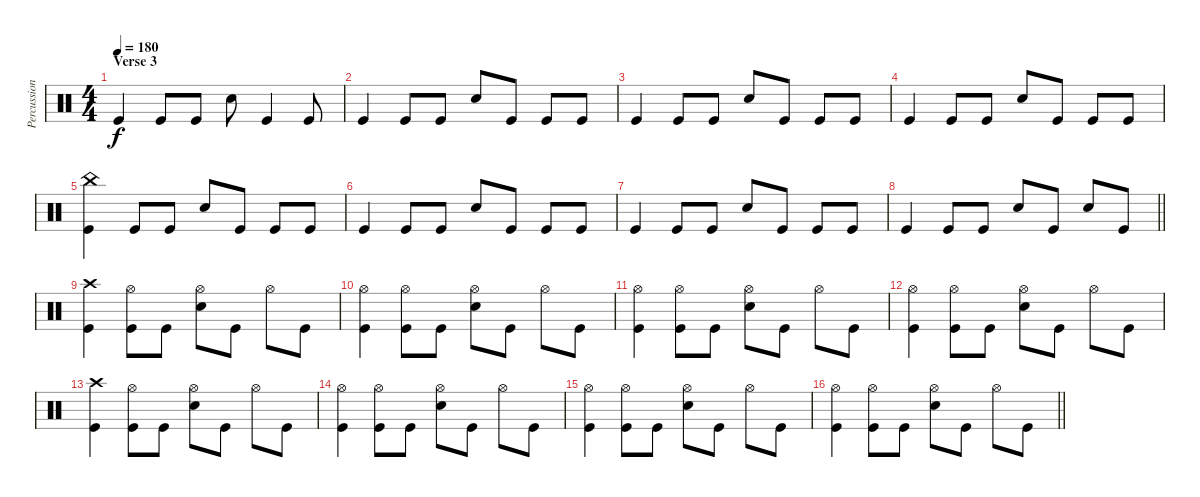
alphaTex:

\track ("Percussion" "Percussion") {instrument percussion}
\staff {score}
\articulation defaults
\ts (4 4)
\section ("" "Verse 3")
\tempo 180
\clef neutral
\ks c "Kick (hit)".4{dy f} "Kick (hit)".8 "Kick (hit)".8 "Snare (hit) 2".8 "Kick (hit)".4 "Kick (hit)".8
|
"Kick (hit)".4 "Kick (hit)".8 "Kick (hit)".8 "Snare (hit) 2".8 "Kick (hit)".8 "Kick (hit)".8 "Kick (hit)".8 |
"Kick (hit)".4 "Kick (hit)".8 "Kick (hit)".8 "Snare (hit) 2".8 "Kick (hit)".8 "Kick (hit)".8 "Kick (hit)".8 |
"Kick (hit)".4 "Kick (hit)".8 "Kick (hit)".8 "Snare (hit) 2".8 "Kick (hit)".8 "Kick (hit)".8 "Kick (hit)".8 |
("China (hit)" "Kick (hit)").4 "Kick (hit)".8 "Kick (hit)".8 "Snare (hit) 2".8 "Kick (hit)".8 "Kick (hit)".8 "Kick (hit)".8 |
"Kick (hit)".4 "Kick (hit)".8 "Kick (hit)".8 "Snare (hit) 2".8 "Kick (hit)".8 "Kick (hit)".8 "Kick (hit)".8 |
"Kick (hit)".4 "Kick (hit)".8 "Kick (hit)".8 "Snare (hit) 2".8 "Kick (hit)".8 "Kick (hit)".8 "Kick (hit)".8 |
\barLineRight lightlight "Kick (hit)".4 "Kick (hit)".8 "Kick (hit)".8 "Snare (hit) 2".8 "Kick (hit)".8 "Snare (hit) 2".8 "Kick (hit)".8
|
("Crash high (hit)" "Kick (hit)").4 ("Hi-Hat (open)" "Kick (hit)").8 "Kick (hit)".8 ("Snare (hit) 2" "Hi-Hat (open)").8 "Kick (hit)".8 "Hi-Hat (open)".8 "Kick (hit)".8 |
("Hi-Hat (open)" "Kick (hit)").4 ("Hi-Hat (open)" "Kick (hit)").8 "Kick (hit)".8 ("Snare (hit) 2" "Hi-Hat (open)").8 "Kick (hit)".8 "Hi-Hat (open)".8 "Kick (hit)".8 |
("Hi-Hat (open)" "Kick (hit)").4 ("Hi-Hat (open)" "Kick (hit)").8 "Kick (hit)".8 ("Snare (hit) 2" "Hi-Hat (open)").8 "Kick (hit)".8 "Hi-Hat (open)".8 "Kick (hit)".8 |
("Hi-Hat (open)" "Kick (hit)").4 ("Hi-Hat (open)" "Kick (hit)").8 "Kick (hit)".8 ("Snare (hit) 2" "Hi-Hat (open)").8 "Kick (hit)".8 "Hi-Hat (open)".8 "Kick (hit)".8 |
("Crash high (hit)" "Kick (hit)").4 ("Hi-Hat (open)" "Kick (hit)").8 "Kick (hit)".8 ("Snare (hit) 2" "Hi-Hat (open)").8 "Kick (hit)".8 "Hi-Hat (open)".8 "Kick (hit)".8 |
("Hi-Hat (open)" "Kick (hit)").4 ("Hi-Hat (open)" "Kick (hit)").8 "Kick (hit)".8 ("Snare (hit) 2" "Hi-Hat (open)").8 "Kick (hit)".8 "Hi-Hat (open)".8 "Kick (hit)".8 |
("Hi-Hat (open)" "Kick (hit)").4 ("Hi-Hat (open)" "Kick (hit)").8 "Kick (hit)".8 ("Snare (hit) 2" "Hi-Hat (open)").8 "Kick (hit)".8 "Hi-Hat (open)".8 "Kick (hit)".8 |
\barLineRight lightlight
("Hi-Hat (open)" "Kick (hit)").4 ("Hi-Hat (open)" "Kick (hit)").8 "Kick (hit)".8 ("Snare (hit) 2" "Hi-Hat (open)").8 "Kick (hit)".8 "Hi-Hat (open)".8 "Kick (hit)".8
